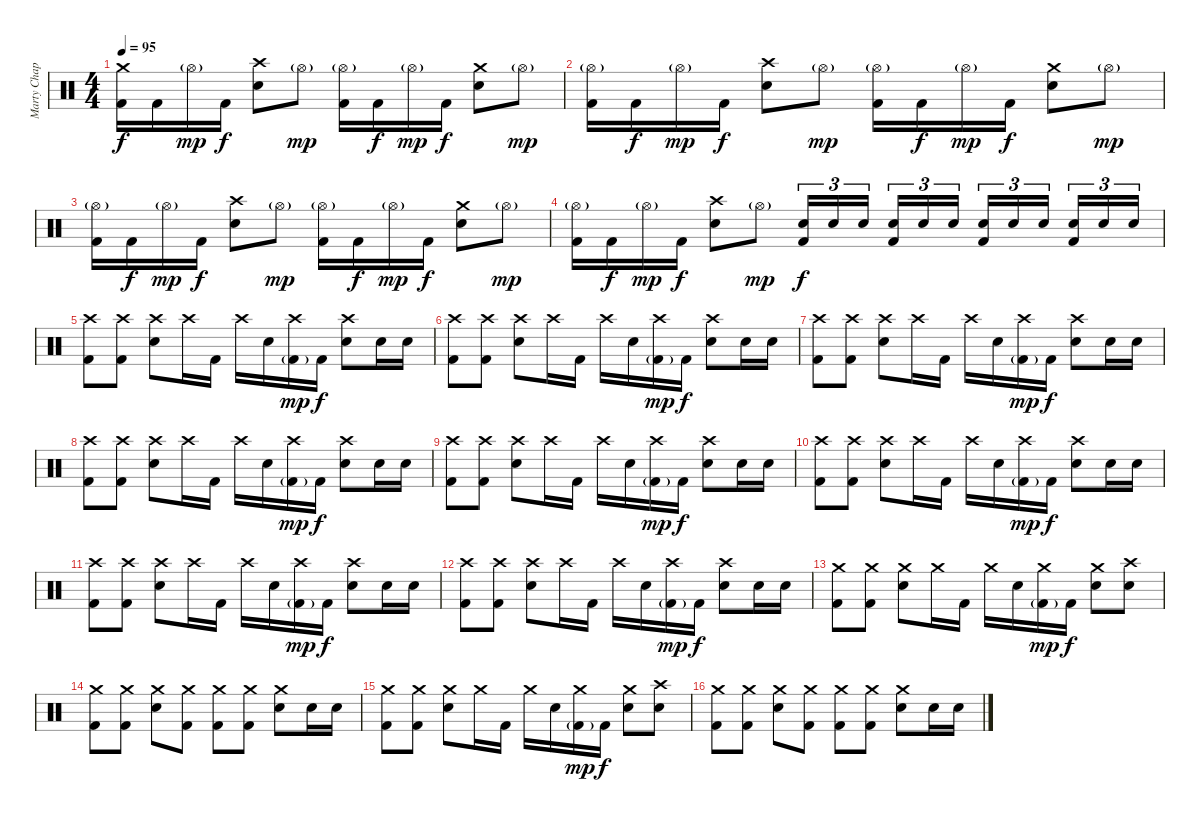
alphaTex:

\track ("Marty Chapman (Drums)" "Marty Chap") {instrument percussion}
\staff {score}
\articulation defaults
\ts (4 4)
\tempo 95
\clef neutral
\ks c
("Crash medium (hit)" "Kick (hit) 2").16{dy f} "Kick (hit) 2".16 "Hi-Hat (open)"{g}.16{dy mp} "Kick (hit) 2".16{dy f} ("Crash high (hit)" "Electric Snare (hit)").8 "Hi-Hat (open)"{g}.8{dy mp} ("Hi-Hat (open)"{g} "Kick (hit) 2").16 "Kick (hit) 2".16{dy f} "Hi-Hat (open)"{g}.16{dy mp} "Kick (hit) 2".16{dy f} ("Crash medium (hit)" "Electric Snare (hit)").8 "Hi-Hat (open)"{g}.8{dy mp} |
("Hi-Hat (open)"{g} "Kick (hit) 2").16 "Kick (hit) 2".16{dy f} "Hi-Hat (open)"{g}.16{dy mp} "Kick (hit) 2".16{dy f} ("Crash high (hit)" "Electric Snare (hit)").8 "Hi-Hat (open)"{g}.8{dy mp} ("Hi-Hat (open)"{g} "Kick (hit) 2").16 "Kick (hit) 2".16{dy f} "Hi-Hat (open)"{g}.16{dy mp} "Kick (hit) 2".16{dy f} ("Crash medium (hit)" "Electric Snare (hit)").8 "Hi-Hat (open)"{g}.8{dy mp} |
("Hi-Hat (open)"{g} "Kick (hit) 2").16 "Kick (hit) 2".16{dy f} "Hi-Hat (open)"{g}.16{dy mp} "Kick (hit) 2".16{dy f} ("Crash high (hit)" "Electric Snare (hit)").8 "Hi-Hat (open)"{g}.8{dy mp} ("Hi-Hat (open)"{g} "Kick (hit) 2").16 "Kick (hit) 2".16{dy f} "Hi-Hat (open)"{g}.16{dy mp} "Kick (hit) 2".16{dy f} ("Crash medium (hit)" "Electric Snare (hit)").8 "Hi-Hat (open)"{g}.8{dy mp} |
("Hi-Hat (open)"{g} "Kick (hit) 2").16 "Kick (hit) 2".16{dy f} "Hi-Hat (open)"{g}.16{dy mp} "Kick (hit) 2".16{dy f} ("Crash high (hit)" "Electric Snare (hit)").8 "Hi-Hat (open)"{g}.8{dy mp} ("Electric Snare (hit)" "Kick (hit) 2").16{tu (3 2) dy f} "Electric Snare (hit)".16{tu (3 2)} "Electric Snare (hit)".16{tu (3 2) beam splitsecondary} ("Electric Snare (hit)" "Kick (hit) 2").16{tu (3 2)} "Electric Snare (hit)".16{tu (3 2)} "Electric Snare (hit)".16{tu (3 2)} ("Electric Snare (hit)" "Kick (hit) 2").16{tu (3 2)} "Electric Snare (hit)".16{tu (3 2)} "Electric Snare (hit)".16{tu (3 2) beam splitsecondary} ("Electric Snare (hit)" "Kick (hit) 2").16{tu (3 2)} "Electric Snare (hit)".16{tu (3 2)} "Electric Snare (hit)".16{tu (3 2)} |
("Crash high (hit)" "Kick (hit) 2").8 ("Crash high (hit)" "Kick (hit) 2").8 ("Crash high (hit)" "Electric Snare (hit)").8 "Crash high (hit)".16 "Kick (hit) 2".16 "Crash high (hit)".16 "Electric Snare (hit)".16 ("Crash high (hit)" "Kick (hit) 2"{g}).16{dy mp} "Kick (hit) 2".16{dy f} ("Crash high (hit)" "Electric Snare (hit)").8 "Electric Snare (hit)".16 "Electric Snare (hit)".16 |
("Crash high (hit)" "Kick (hit) 2").8 ("Crash high (hit)" "Kick (hit) 2").8 ("Crash high (hit)" "Electric Snare (hit)").8 "Crash high (hit)".16 "Kick (hit) 2".16 "Crash high (hit)".16 "Electric Snare (hit)".16 ("Crash high (hit)" "Kick (hit) 2"{g}).16{dy mp} "Kick (hit) 2".16{dy f} ("Crash high (hit)" "Electric Snare (hit)").8 "Electric Snare (hit)".16 "Electric Snare (hit)".16 |
("Crash high (hit)" "Kick (hit) 2").8 ("Crash high (hit)" "Kick (hit) 2").8 ("Crash high (hit)" "Electric Snare (hit)").8 "Crash high (hit)".16 "Kick (hit) 2".16 "Crash high (hit)".16 "Electric Snare (hit)".16 ("Crash high (hit)" "Kick (hit) 2"{g}).16{dy mp} "Kick (hit) 2".16{dy f} ("Crash high (hit)" "Electric Snare (hit)").8 "Electric Snare (hit)".16 "Electric Snare (hit)".16 |
("Crash high (hit)" "Kick (hit) 2").8 ("Crash high (hit)" "Kick (hit) 2").8 ("Crash high (hit)" "Electric Snare (hit)").8 "Crash high (hit)".16 "Kick (hit) 2".16 "Crash high (hit)".16 "Electric Snare (hit)".16 ("Crash high (hit)" "Kick (hit) 2"{g}).16{dy mp} "Kick (hit) 2".16{dy f} ("Crash high (hit)" "Electric Snare (hit)").8 "Electric Snare (hit)".16 "Electric Snare (hit)".16 |
("Crash high (hit)" "Kick (hit) 2").8 ("Crash high (hit)" "Kick (hit) 2").8 ("Crash high (hit)" "Electric Snare (hit)").8 "Crash high (hit)".16 "Kick (hit) 2".16 "Crash high (hit)".16 "Electric Snare (hit)".16 ("Crash high (hit)" "Kick (hit) 2"{g}).16{dy mp} "Kick (hit) 2".16{dy f} ("Crash high (hit)" "Electric Snare (hit)").8 "Electric Snare (hit)".16 "Electric Snare (hit)".16 |
("Crash high (hit)" "Kick (hit) 2").8 ("Crash high (hit)" "Kick (hit) 2").8 ("Crash high (hit)" "Electric Snare (hit)").8 "Crash high (hit)".16 "Kick (hit) 2".16 "Crash high (hit)".16 "Electric Snare (hit)".16 ("Crash high (hit)" "Kick (hit) 2"{g}).16{dy mp} "Kick (hit) 2".16{dy f} ("Crash high (hit)" "Electric Snare (hit)").8 "Electric Snare (hit)".16 "Electric Snare (hit)".16 |
("Crash high (hit)" "Kick (hit) 2").8 ("Crash high (hit)" "Kick (hit) 2").8 ("Crash high (hit)" "Electric Snare (hit)").8 "Crash high (hit)".16 "Kick (hit) 2".16 "Crash high (hit)".16 "Electric Snare (hit)".16 ("Crash high (hit)" "Kick (hit) 2"{g}).16{dy mp} "Kick (hit) 2".16{dy f} ("Crash high (hit)" "Electric Snare (hit)").8 "Electric Snare (hit)".16 "Electric Snare (hit)".16 |
("Crash high (hit)" "Kick (hit) 2").8 ("Crash high (hit)" "Kick (hit) 2").8 ("Crash high (hit)" "Electric Snare (hit)").8 "Crash high (hit)".16 "Kick (hit) 2".16 "Crash high (hit)".16 "Electric Snare (hit)".16 ("Crash high (hit)" "Kick (hit) 2"{g}).16{dy mp} "Kick (hit) 2".16{dy f} ("Crash high (hit)" "Electric Snare (hit)").8 "Electric Snare (hit)".16 "Electric Snare (hit)".16 |
("Crash medium (hit)" "Kick (hit) 2").8 ("Crash medium (hit)" "Kick (hit) 2").8 ("Crash medium (hit)" "Electric Snare (hit)").8 "Crash medium (hit)".16 "Kick (hit) 2".16 "Crash medium (hit)".16 "Electric Snare (hit)".16 ("Crash medium (hit)" "Kick (hit) 2"{g}).16{dy mp} "Kick (hit) 2".16{dy f} ("Crash medium (hit)" "Electric Snare (hit)").8 ("Crash high (hit)" "Electric Snare (hit)").8 |
("Crash medium (hit)" "Kick (hit) 2").8 ("Crash medium (hit)" "Kick (hit) 2").8 ("Crash medium (hit)" "Electric Snare (hit)").8 ("Crash medium (hit)" "Kick (hit) 2").8 ("Crash medium (hit)" "Kick (hit) 2").8 ("Crash medium (hit)" "Kick (hit) 2").8 ("Crash medium (hit)" "Electric Snare (hit)").8 "Electric Snare (hit)".16 "Electric Snare (hit)".16 |
("Crash medium (hit)" "Kick (hit) 2").8 ("Crash medium (hit)" "Kick (hit) 2").8 ("Crash medium (hit)" "Electric Snare (hit)").8 "Crash medium (hit)".16 "Kick (hit) 2".16 "Crash medium (hit)".16 "Electric Snare (hit)".16 ("Crash medium (hit)" "Kick (hit) 2"{g}).16{dy mp} "Kick (hit) 2".16{dy f} ("Crash medium (hit)" "Electric Snare (hit)").8 ("Crash high (hit)" "Electric Snare (hit)").8 |
("Crash medium (hit)" "Kick (hit) 2").8 ("Crash medium (hit)" "Kick (hit) 2").8 ("Crash medium (hit)" "Electric Snare (hit)").8 ("Crash medium (hit)" "Kick (hit) 2").8 ("Crash medium (hit)" "Kick (hit) 2").8 ("Crash medium (hit)" "Kick (hit) 2").8 ("Crash medium (hit)" "Electric Snare (hit)").8 "Electric Snare (hit)".16 "Electric Snare (hit)".16
